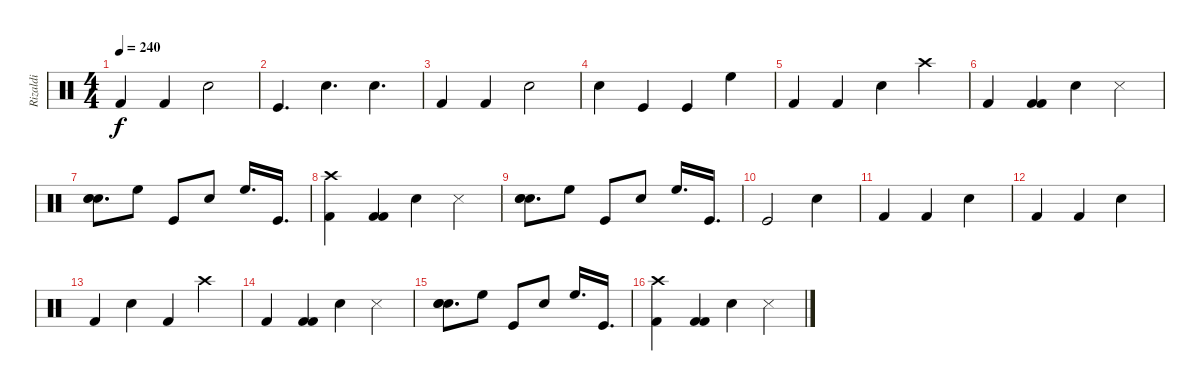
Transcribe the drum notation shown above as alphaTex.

\track ("Rizaldi" "Rizaldi") {instrument percussion}
\staff {score}
\articulation defaults
\ts (4 4)
\tempo 240
\clef neutral
\ks c "Kick (hit) 2".4{dy f} "Kick (hit) 2".4 "Snare (hit) 2".2
|
"Kick (hit)".4{d} "Electric Snare (hit)".4{d} "Electric Snare (hit)".4{d} |
"Kick (hit) 2".4 "Kick (hit) 2".4 "Snare (hit) 2".2 |
"Snare (hit) 2".4 "Kick (hit)".4 "Kick (hit)".4 "High Floor Tom (hit)".4 |
"Kick (hit) 2".4 "Kick (hit) 2".4 "Snare (hit) 2".4 "Crash high (hit)".4 |
"Kick (hit) 2".4 ("Kick (hit) 2" "Kick (hit) 2").4 "Snare (hit) 2".4 "Snare (side stick) 3".4 |
("Electric Snare (hit)" "Snare (hit) 2" "Snare (hit) 2").8{d} "High Floor Tom (hit)".8 "Kick (hit)".8 "Snare (hit) 2".8 "High Floor Tom (hit)".16{d} "Kick (hit)".16{d} |
("Kick (hit) 2" "Crash high (hit)").4 ("Kick (hit) 2" "Kick (hit) 2").4 "Snare (hit) 2".4 "Snare (side stick) 3".4 |
("Electric Snare (hit)" "Snare (hit) 2" "Snare (hit) 2").8{d} "High Floor Tom (hit)".8 "Kick (hit)".8 "Snare (hit) 2".8 "High Floor Tom (hit)".16{d} "Kick (hit)".16{d} |
"Kick (hit)".2 "Snare (hit) 2".4 |
"Kick (hit) 2".4 "Kick (hit) 2".4 "Snare (hit) 2".4 |
"Kick (hit) 2".4 "Kick (hit) 2".4 "Snare (hit) 2".4 |
"Kick (hit) 2".4 "Snare (hit) 2".4 "Kick (hit) 2".4 "Crash high (hit)".4 |
"Kick (hit) 2".4 ("Kick (hit) 2" "Kick (hit) 2").4 "Snare (hit) 2".4 "Snare (side stick) 3".4 |
("Electric Snare (hit)" "Snare (hit) 2" "Snare (hit) 2").8{d} "High Floor Tom (hit)".8 "Kick (hit)".8 "Snare (hit) 2".8 "High Floor Tom (hit)".16{d} "Kick (hit)".16{d} |
("Kick (hit) 2" "Crash high (hit)").4 ("Kick (hit) 2" "Kick (hit) 2").4 "Snare (hit) 2".4 "Snare (side stick) 3".4
